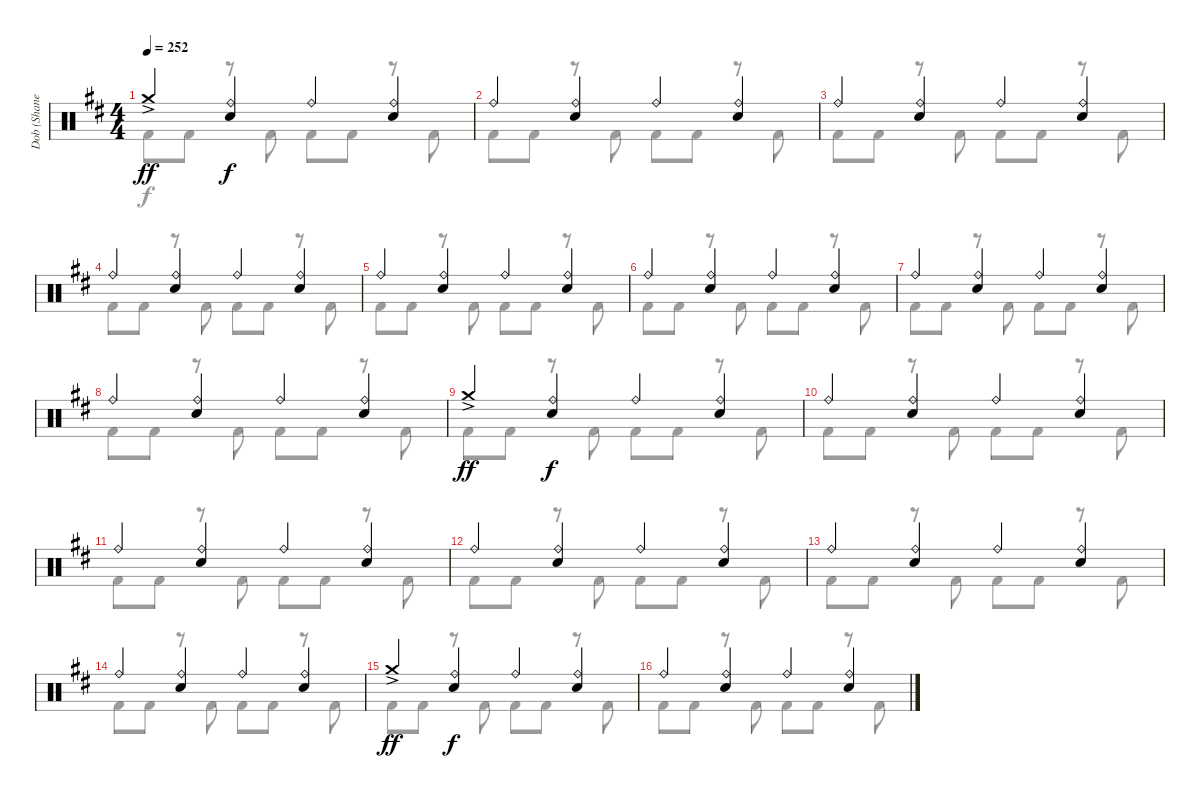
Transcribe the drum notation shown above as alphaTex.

\track ("Dob (Shane Gaalaas)" "Dob (Shane") {instrument percussion}
\staff {score}
\articulation defaults
\voice
\ts (4 4)
\tempo 252
\clef neutral
\ks d "Crash medium (hit)"{ac}.4{dy ff}
("Ride (bell)" "Electric Snare (hit)").4{dy f} "Ride (bell)".4 ("Ride (bell)" "Electric Snare (hit)").4 |
"Ride (bell)".4 ("Ride (bell)" "Electric Snare (hit)").4 "Ride (bell)".4 ("Ride (bell)" "Electric Snare (hit)").4 |
"Ride (bell)".4 ("Ride (bell)" "Electric Snare (hit)").4 "Ride (bell)".4 ("Ride (bell)" "Electric Snare (hit)").4 |
"Ride (bell)".4 ("Ride (bell)" "Electric Snare (hit)").4 "Ride (bell)".4 ("Ride (bell)" "Electric Snare (hit)").4 |
"Ride (bell)".4 ("Ride (bell)" "Electric Snare (hit)").4 "Ride (bell)".4 ("Ride (bell)" "Electric Snare (hit)").4 |
"Ride (bell)".4 ("Ride (bell)" "Electric Snare (hit)").4 "Ride (bell)".4 ("Ride (bell)" "Electric Snare (hit)").4 |
"Ride (bell)".4 ("Ride (bell)" "Electric Snare (hit)").4 "Ride (bell)".4 ("Ride (bell)" "Electric Snare (hit)").4 |
"Ride (bell)".4 ("Ride (bell)" "Electric Snare (hit)").4 "Ride (bell)".4 ("Ride (bell)" "Electric Snare (hit)").4 |
"Crash medium (hit)"{ac}.4{dy ff} ("Ride (bell)" "Electric Snare (hit)").4{dy f} "Ride (bell)".4 ("Ride (bell)" "Electric Snare (hit)").4 |
"Ride (bell)".4 ("Ride (bell)" "Electric Snare (hit)").4 "Ride (bell)".4 ("Ride (bell)" "Electric Snare (hit)").4 |
"Ride (bell)".4 ("Ride (bell)" "Electric Snare (hit)").4 "Ride (bell)".4 ("Ride (bell)" "Electric Snare (hit)").4 |
"Ride (bell)".4 ("Ride (bell)" "Electric Snare (hit)").4 "Ride (bell)".4 ("Ride (bell)" "Electric Snare (hit)").4 |
"Ride (bell)".4 ("Ride (bell)" "Electric Snare (hit)").4 "Ride (bell)".4 ("Ride (bell)" "Electric Snare (hit)").4 |
"Ride (bell)".4 ("Ride (bell)" "Electric Snare (hit)").4 "Ride (bell)".4 ("Ride (bell)" "Electric Snare (hit)").4 |
"Crash medium (hit)"{ac}.4{dy ff} ("Ride (bell)" "Electric Snare (hit)").4{dy f} "Ride (bell)".4 ("Ride (bell)" "Electric Snare (hit)").4 |
"Ride (bell)".4 ("Ride (bell)" "Electric Snare (hit)").4 "Ride (bell)".4 ("Ride (bell)" "Electric Snare (hit)").4
\voice
\clef neutral
\ottava regular
\simile none
\ks d "Kick (hit) 2".8{dy f} "Kick (hit) 2".8
r.8 "Kick (hit) 2".8 "Kick (hit) 2".8 "Kick (hit) 2".8 r.8 "Kick (hit) 2".8 |
"Kick (hit) 2".8 "Kick (hit) 2".8 r.8 "Kick (hit) 2".8 "Kick (hit) 2".8 "Kick (hit) 2".8 r.8 "Kick (hit) 2".8 |
"Kick (hit) 2".8 "Kick (hit) 2".8 r.8 "Kick (hit) 2".8 "Kick (hit) 2".8 "Kick (hit) 2".8 r.8 "Kick (hit) 2".8 |
"Kick (hit) 2".8 "Kick (hit) 2".8 r.8 "Kick (hit) 2".8 "Kick (hit) 2".8 "Kick (hit) 2".8 r.8 "Kick (hit) 2".8 |
"Kick (hit) 2".8 "Kick (hit) 2".8 r.8 "Kick (hit) 2".8 "Kick (hit) 2".8 "Kick (hit) 2".8 r.8 "Kick (hit) 2".8 |
"Kick (hit) 2".8 "Kick (hit) 2".8 r.8 "Kick (hit) 2".8 "Kick (hit) 2".8 "Kick (hit) 2".8 r.8 "Kick (hit) 2".8 |
"Kick (hit) 2".8 "Kick (hit) 2".8 r.8 "Kick (hit) 2".8 "Kick (hit) 2".8 "Kick (hit) 2".8 r.8 "Kick (hit) 2".8 |
"Kick (hit) 2".8 "Kick (hit) 2".8 r.8 "Kick (hit) 2".8 "Kick (hit) 2".8 "Kick (hit) 2".8 r.8 "Kick (hit) 2".8 |
"Kick (hit) 2".8 "Kick (hit) 2".8 r.8 "Kick (hit) 2".8 "Kick (hit) 2".8 "Kick (hit) 2".8 r.8 "Kick (hit) 2".8 |
"Kick (hit) 2".8 "Kick (hit) 2".8 r.8 "Kick (hit) 2".8 "Kick (hit) 2".8 "Kick (hit) 2".8 r.8 "Kick (hit) 2".8 |
"Kick (hit) 2".8 "Kick (hit) 2".8 r.8 "Kick (hit) 2".8 "Kick (hit) 2".8 "Kick (hit) 2".8 r.8 "Kick (hit) 2".8 |
"Kick (hit) 2".8 "Kick (hit) 2".8 r.8 "Kick (hit) 2".8 "Kick (hit) 2".8 "Kick (hit) 2".8 r.8 "Kick (hit) 2".8 |
"Kick (hit) 2".8 "Kick (hit) 2".8 r.8 "Kick (hit) 2".8 "Kick (hit) 2".8 "Kick (hit) 2".8 r.8 "Kick (hit) 2".8 |
"Kick (hit) 2".8 "Kick (hit) 2".8 r.8 "Kick (hit) 2".8 "Kick (hit) 2".8 "Kick (hit) 2".8 r.8 "Kick (hit) 2".8 |
"Kick (hit) 2".8 "Kick (hit) 2".8 r.8 "Kick (hit) 2".8 "Kick (hit) 2".8 "Kick (hit) 2".8 r.8 "Kick (hit) 2".8 |
"Kick (hit) 2".8 "Kick (hit) 2".8 r.8 "Kick (hit) 2".8 "Kick (hit) 2".8 "Kick (hit) 2".8 r.8 "Kick (hit) 2".8
